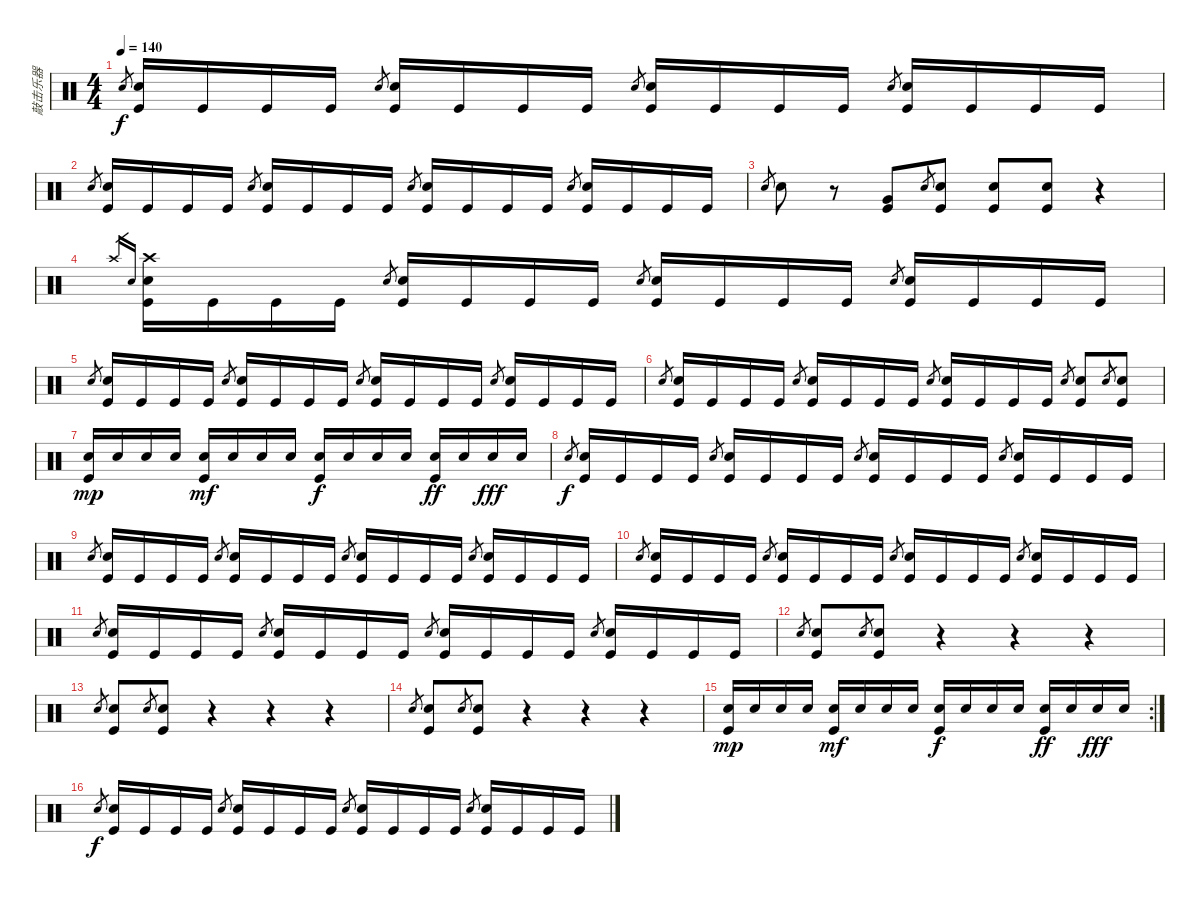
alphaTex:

\track ("敲击乐器" "敲击乐器") {instrument percussion}
\staff {score}
\articulation defaults
\ts (4 4)
\tempo 140
\clef neutral
\ks c "Electric Snare (hit)".8{gr dy f}
("Electric Snare (hit)" "Kick (hit)").16 "Kick (hit)".16 "Kick (hit)".16 "Kick (hit)".16 "Electric Snare (hit)".8{gr} ("Electric Snare (hit)" "Kick (hit)").16 "Kick (hit)".16 "Kick (hit)".16 "Kick (hit)".16 "Electric Snare (hit)".8{gr} ("Electric Snare (hit)" "Kick (hit)").16 "Kick (hit)".16 "Kick (hit)".16 "Kick (hit)".16 "Electric Snare (hit)".8{gr} ("Electric Snare (hit)" "Kick (hit)").16 "Kick (hit)".16 "Kick (hit)".16 "Kick (hit)".16 |
"Electric Snare (hit)".8{gr} ("Electric Snare (hit)" "Kick (hit)").16 "Kick (hit)".16 "Kick (hit)".16 "Kick (hit)".16 "Electric Snare (hit)".8{gr} ("Electric Snare (hit)" "Kick (hit)").16 "Kick (hit)".16 "Kick (hit)".16 "Kick (hit)".16 "Electric Snare (hit)".8{gr} ("Electric Snare (hit)" "Kick (hit)").16 "Kick (hit)".16 "Kick (hit)".16 "Kick (hit)".16 "Electric Snare (hit)".8{gr} ("Electric Snare (hit)" "Kick (hit)").16 "Kick (hit)".16 "Kick (hit)".16 "Kick (hit)".16 |
"Electric Snare (hit)".8{gr} "Electric Snare (hit)".8 r.8 ("Very Low Tom (hit)" "Kick (hit)").8 "Electric Snare (hit)".8{gr} ("Electric Snare (hit)" "Kick (hit)").8 ("Electric Snare (hit)" "Kick (hit)").8 ("Electric Snare (hit)" "Kick (hit)").8 r.4 |
"Crash high (hit)".16{gr} "Electric Snare (hit)".16{gr} ("Crash high (hit)" "Electric Snare (hit)" "Kick (hit)").16 "Kick (hit)".16 "Kick (hit)".16 "Kick (hit)".16 "Electric Snare (hit)".8{gr} ("Electric Snare (hit)" "Kick (hit)").16 "Kick (hit)".16 "Kick (hit)".16 "Kick (hit)".16 "Electric Snare (hit)".8{gr} ("Electric Snare (hit)" "Kick (hit)").16 "Kick (hit)".16 "Kick (hit)".16 "Kick (hit)".16 "Electric Snare (hit)".8{gr} ("Electric Snare (hit)" "Kick (hit)").16 "Kick (hit)".16 "Kick (hit)".16 "Kick (hit)".16 |
"Electric Snare (hit)".8{gr} ("Electric Snare (hit)" "Kick (hit)").16 "Kick (hit)".16 "Kick (hit)".16 "Kick (hit)".16 "Electric Snare (hit)".8{gr} ("Electric Snare (hit)" "Kick (hit)").16 "Kick (hit)".16 "Kick (hit)".16 "Kick (hit)".16 "Electric Snare (hit)".8{gr} ("Electric Snare (hit)" "Kick (hit)").16 "Kick (hit)".16 "Kick (hit)".16 "Kick (hit)".16 "Electric Snare (hit)".8{gr} ("Electric Snare (hit)" "Kick (hit)").16 "Kick (hit)".16 "Kick (hit)".16 "Kick (hit)".16 |
"Electric Snare (hit)".8{gr} ("Electric Snare (hit)" "Kick (hit)").16 "Kick (hit)".16 "Kick (hit)".16 "Kick (hit)".16 "Electric Snare (hit)".8{gr} ("Electric Snare (hit)" "Kick (hit)").16 "Kick (hit)".16 "Kick (hit)".16 "Kick (hit)".16 "Electric Snare (hit)".8{gr} ("Electric Snare (hit)" "Kick (hit)").16 "Kick (hit)".16 "Kick (hit)".16 "Kick (hit)".16 "Electric Snare (hit)".8{gr} ("Electric Snare (hit)" "Kick (hit)").8 "Electric Snare (hit)".8{gr} ("Electric Snare (hit)" "Kick (hit)").8 |
("Electric Snare (hit)" "Kick (hit)").16{dy mp} "Electric Snare (hit)".16 "Electric Snare (hit)".16 "Electric Snare (hit)".16 ("Electric Snare (hit)" "Kick (hit)").16{dy mf} "Electric Snare (hit)".16 "Electric Snare (hit)".16 "Electric Snare (hit)".16 ("Electric Snare (hit)" "Kick (hit)").16{dy f} "Electric Snare (hit)".16 "Electric Snare (hit)".16 "Electric Snare (hit)".16 ("Electric Snare (hit)" "Kick (hit)").16{dy ff} "Electric Snare (hit)".16 "Electric Snare (hit)".16{dy fff} "Electric Snare (hit)".16 |
"Electric Snare (hit)".8{gr dy f} ("Electric Snare (hit)" "Kick (hit)").16 "Kick (hit)".16 "Kick (hit)".16 "Kick (hit)".16 "Electric Snare (hit)".8{gr} ("Electric Snare (hit)" "Kick (hit)").16 "Kick (hit)".16 "Kick (hit)".16 "Kick (hit)".16 "Electric Snare (hit)".8{gr} ("Electric Snare (hit)" "Kick (hit)").16 "Kick (hit)".16 "Kick (hit)".16 "Kick (hit)".16 "Electric Snare (hit)".8{gr} ("Electric Snare (hit)" "Kick (hit)").16 "Kick (hit)".16 "Kick (hit)".16 "Kick (hit)".16 |
"Electric Snare (hit)".8{gr} ("Electric Snare (hit)" "Kick (hit)").16 "Kick (hit)".16 "Kick (hit)".16 "Kick (hit)".16 "Electric Snare (hit)".8{gr} ("Electric Snare (hit)" "Kick (hit)").16 "Kick (hit)".16 "Kick (hit)".16 "Kick (hit)".16 "Electric Snare (hit)".8{gr} ("Electric Snare (hit)" "Kick (hit)").16 "Kick (hit)".16 "Kick (hit)".16 "Kick (hit)".16 "Electric Snare (hit)".8{gr} ("Electric Snare (hit)" "Kick (hit)").16 "Kick (hit)".16 "Kick (hit)".16 "Kick (hit)".16 |
"Electric Snare (hit)".8{gr} ("Electric Snare (hit)" "Kick (hit)").16 "Kick (hit)".16 "Kick (hit)".16 "Kick (hit)".16 "Electric Snare (hit)".8{gr} ("Electric Snare (hit)" "Kick (hit)").16 "Kick (hit)".16 "Kick (hit)".16 "Kick (hit)".16 "Electric Snare (hit)".8{gr} ("Electric Snare (hit)" "Kick (hit)").16 "Kick (hit)".16 "Kick (hit)".16 "Kick (hit)".16 "Electric Snare (hit)".8{gr} ("Electric Snare (hit)" "Kick (hit)").16 "Kick (hit)".16 "Kick (hit)".16 "Kick (hit)".16 |
"Electric Snare (hit)".8{gr} ("Electric Snare (hit)" "Kick (hit)").16 "Kick (hit)".16 "Kick (hit)".16 "Kick (hit)".16 "Electric Snare (hit)".8{gr} ("Electric Snare (hit)" "Kick (hit)").16 "Kick (hit)".16 "Kick (hit)".16 "Kick (hit)".16 "Electric Snare (hit)".8{gr} ("Electric Snare (hit)" "Kick (hit)").16 "Kick (hit)".16 "Kick (hit)".16 "Kick (hit)".16 "Electric Snare (hit)".8{gr} ("Electric Snare (hit)" "Kick (hit)").16 "Kick (hit)".16 "Kick (hit)".16 "Kick (hit)".16 |
"Electric Snare (hit)".8{gr} ("Electric Snare (hit)" "Kick (hit)").8 "Electric Snare (hit)".8{gr} ("Electric Snare (hit)" "Kick (hit)").8 r.4 r.4 r.4 |
"Electric Snare (hit)".8{gr} ("Electric Snare (hit)" "Kick (hit)").8 "Electric Snare (hit)".8{gr} ("Electric Snare (hit)" "Kick (hit)").8 r.4 r.4 r.4 |
"Electric Snare (hit)".8{gr} ("Electric Snare (hit)" "Kick (hit)").8 "Electric Snare (hit)".8{gr} ("Electric Snare (hit)" "Kick (hit)").8 r.4 r.4 r.4 |
\rc 2
("Electric Snare (hit)" "Kick (hit)").16{dy mp} "Electric Snare (hit)".16 "Electric Snare (hit)".16 "Electric Snare (hit)".16 ("Electric Snare (hit)" "Kick (hit)").16{dy mf} "Electric Snare (hit)".16 "Electric Snare (hit)".16 "Electric Snare (hit)".16 ("Electric Snare (hit)" "Kick (hit)").16{dy f} "Electric Snare (hit)".16 "Electric Snare (hit)".16 "Electric Snare (hit)".16 ("Electric Snare (hit)" "Kick (hit)").16{dy ff} "Electric Snare (hit)".16 "Electric Snare (hit)".16{dy fff} "Electric Snare (hit)".16 |
"Electric Snare (hit)".8{gr dy f} ("Electric Snare (hit)" "Kick (hit)").16 "Kick (hit)".16 "Kick (hit)".16 "Kick (hit)".16 "Electric Snare (hit)".8{gr} ("Electric Snare (hit)" "Kick (hit)").16 "Kick (hit)".16 "Kick (hit)".16 "Kick (hit)".16 "Electric Snare (hit)".8{gr} ("Electric Snare (hit)" "Kick (hit)").16 "Kick (hit)".16 "Kick (hit)".16 "Kick (hit)".16 "Electric Snare (hit)".8{gr} ("Electric Snare (hit)" "Kick (hit)").16 "Kick (hit)".16 "Kick (hit)".16 "Kick (hit)".16
